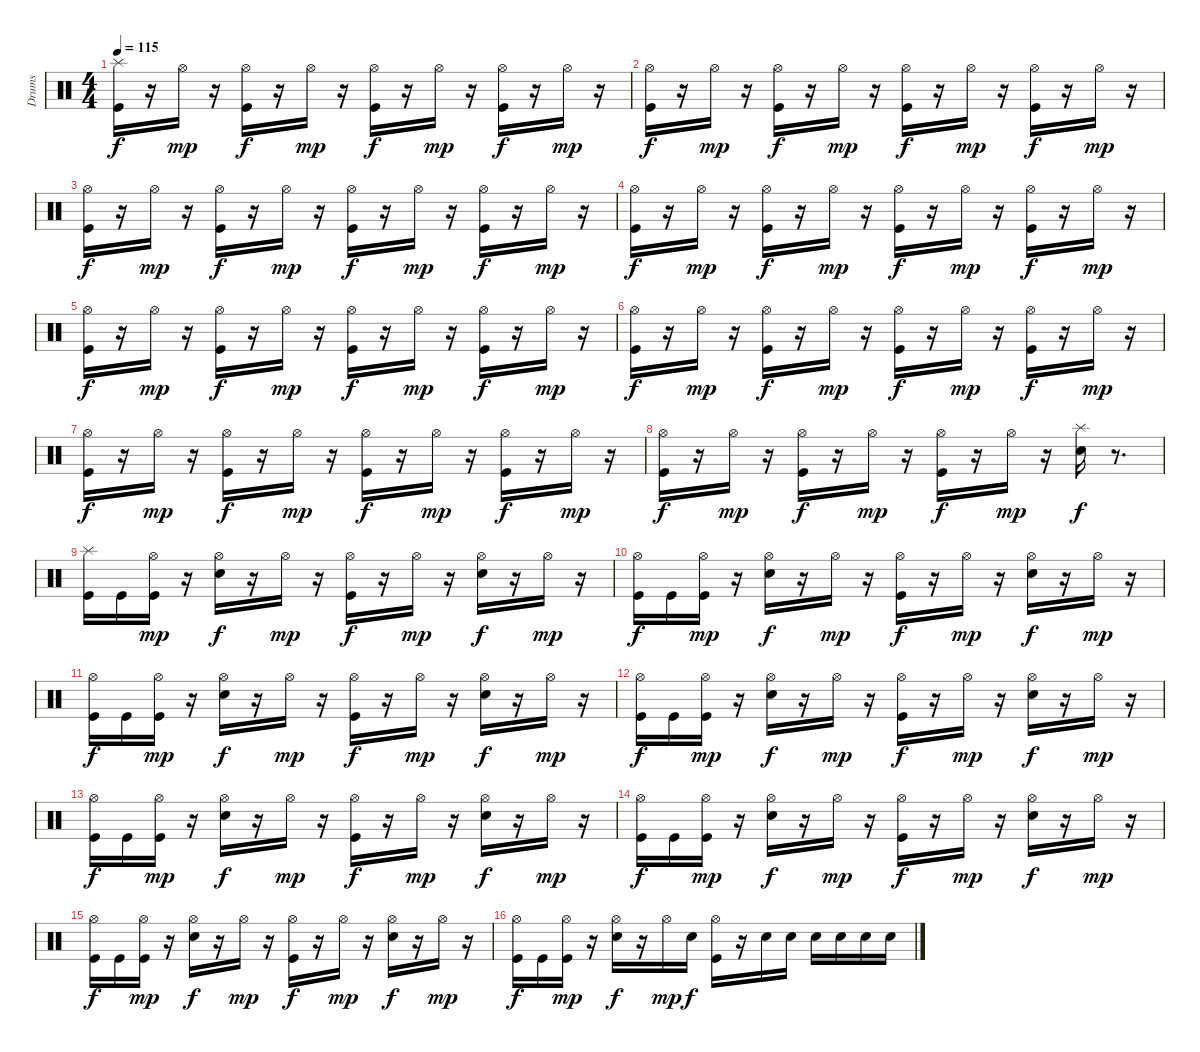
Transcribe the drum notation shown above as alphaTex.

\track ("Drums" "Drums") {instrument percussion}
\staff {score}
\articulation defaults
\ts (4 4)
\tempo 115
\clef neutral
\ks c
("Kick (hit)" "Splash (hit)").16{dy f} r.16 "Hi-Hat (open)".16{dy mp} r.16 ("Hi-Hat (open)" "Kick (hit)").16{dy f} r.16 "Hi-Hat (open)".16{dy mp} r.16 ("Hi-Hat (open)" "Kick (hit)").16{dy f} r.16 "Hi-Hat (open)".16{dy mp} r.16 ("Hi-Hat (open)" "Kick (hit)").16{dy f} r.16 "Hi-Hat (open)".16{dy mp} r.16 |
("Hi-Hat (open)" "Kick (hit)").16{dy f} r.16 "Hi-Hat (open)".16{dy mp} r.16 ("Hi-Hat (open)" "Kick (hit)").16{dy f} r.16 "Hi-Hat (open)".16{dy mp} r.16 ("Hi-Hat (open)" "Kick (hit)").16{dy f} r.16 "Hi-Hat (open)".16{dy mp} r.16 ("Hi-Hat (open)" "Kick (hit)").16{dy f} r.16 "Hi-Hat (open)".16{dy mp} r.16 |
("Hi-Hat (open)" "Kick (hit)").16{dy f} r.16 "Hi-Hat (open)".16{dy mp} r.16 ("Hi-Hat (open)" "Kick (hit)").16{dy f} r.16 "Hi-Hat (open)".16{dy mp} r.16 ("Hi-Hat (open)" "Kick (hit)").16{dy f} r.16 "Hi-Hat (open)".16{dy mp} r.16 ("Hi-Hat (open)" "Kick (hit)").16{dy f} r.16 "Hi-Hat (open)".16{dy mp} r.16 |
("Hi-Hat (open)" "Kick (hit)").16{dy f} r.16 "Hi-Hat (open)".16{dy mp} r.16 ("Hi-Hat (open)" "Kick (hit)").16{dy f} r.16 "Hi-Hat (open)".16{dy mp} r.16 ("Hi-Hat (open)" "Kick (hit)").16{dy f} r.16 "Hi-Hat (open)".16{dy mp} r.16 ("Hi-Hat (open)" "Kick (hit)").16{dy f} r.16 "Hi-Hat (open)".16{dy mp} r.16 |
("Hi-Hat (open)" "Kick (hit)").16{dy f} r.16 "Hi-Hat (open)".16{dy mp} r.16 ("Hi-Hat (open)" "Kick (hit)").16{dy f} r.16 "Hi-Hat (open)".16{dy mp} r.16 ("Hi-Hat (open)" "Kick (hit)").16{dy f} r.16 "Hi-Hat (open)".16{dy mp} r.16 ("Hi-Hat (open)" "Kick (hit)").16{dy f} r.16 "Hi-Hat (open)".16{dy mp} r.16 |
("Hi-Hat (open)" "Kick (hit)").16{dy f} r.16 "Hi-Hat (open)".16{dy mp} r.16 ("Hi-Hat (open)" "Kick (hit)").16{dy f} r.16 "Hi-Hat (open)".16{dy mp} r.16 ("Hi-Hat (open)" "Kick (hit)").16{dy f} r.16 "Hi-Hat (open)".16{dy mp} r.16 ("Hi-Hat (open)" "Kick (hit)").16{dy f} r.16 "Hi-Hat (open)".16{dy mp} r.16 |
("Hi-Hat (open)" "Kick (hit)").16{dy f} r.16 "Hi-Hat (open)".16{dy mp} r.16 ("Hi-Hat (open)" "Kick (hit)").16{dy f} r.16 "Hi-Hat (open)".16{dy mp} r.16 ("Hi-Hat (open)" "Kick (hit)").16{dy f} r.16 "Hi-Hat (open)".16{dy mp} r.16 ("Hi-Hat (open)" "Kick (hit)").16{dy f} r.16 "Hi-Hat (open)".16{dy mp} r.16 |
("Hi-Hat (open)" "Kick (hit)").16{dy f} r.16 "Hi-Hat (open)".16{dy mp} r.16 ("Hi-Hat (open)" "Kick (hit)").16{dy f} r.16 "Hi-Hat (open)".16{dy mp} r.16 ("Hi-Hat (open)" "Kick (hit)").16{dy f} r.16 "Hi-Hat (open)".16{dy mp} r.16 ("Splash (hit)" "Electric Snare (hit)").16{dy f} r.8{d} |
("Splash (hit)" "Kick (hit)").16 "Kick (hit)".16 ("Kick (hit)" "Hi-Hat (open)").16{dy mp} r.16 ("Hi-Hat (open)" "Electric Snare (hit)").16{dy f} r.16 "Hi-Hat (open)".16{dy mp} r.16 ("Hi-Hat (open)" "Kick (hit)").16{dy f} r.16 "Hi-Hat (open)".16{dy mp} r.16 ("Hi-Hat (open)" "Electric Snare (hit)").16{dy f} r.16 "Hi-Hat (open)".16{dy mp} r.16 |
("Hi-Hat (open)" "Kick (hit)").16{dy f} "Kick (hit)".16 ("Kick (hit)" "Hi-Hat (open)").16{dy mp} r.16 ("Hi-Hat (open)" "Electric Snare (hit)").16{dy f} r.16 "Hi-Hat (open)".16{dy mp} r.16 ("Hi-Hat (open)" "Kick (hit)").16{dy f} r.16 "Hi-Hat (open)".16{dy mp} r.16 ("Hi-Hat (open)" "Electric Snare (hit)").16{dy f} r.16 "Hi-Hat (open)".16{dy mp} r.16 |
("Hi-Hat (open)" "Kick (hit)").16{dy f} "Kick (hit)".16 ("Kick (hit)" "Hi-Hat (open)").16{dy mp} r.16 ("Hi-Hat (open)" "Electric Snare (hit)").16{dy f} r.16 "Hi-Hat (open)".16{dy mp} r.16 ("Hi-Hat (open)" "Kick (hit)").16{dy f} r.16 "Hi-Hat (open)".16{dy mp} r.16 ("Hi-Hat (open)" "Electric Snare (hit)").16{dy f} r.16 "Hi-Hat (open)".16{dy mp} r.16 |
("Hi-Hat (open)" "Kick (hit)").16{dy f} "Kick (hit)".16 ("Kick (hit)" "Hi-Hat (open)").16{dy mp} r.16 ("Hi-Hat (open)" "Electric Snare (hit)").16{dy f} r.16 "Hi-Hat (open)".16{dy mp} r.16 ("Hi-Hat (open)" "Kick (hit)").16{dy f} r.16 "Hi-Hat (open)".16{dy mp} r.16 ("Hi-Hat (open)" "Electric Snare (hit)").16{dy f} r.16 "Hi-Hat (open)".16{dy mp} r.16 |
("Hi-Hat (open)" "Kick (hit)").16{dy f} "Kick (hit)".16 ("Kick (hit)" "Hi-Hat (open)").16{dy mp} r.16 ("Hi-Hat (open)" "Electric Snare (hit)").16{dy f} r.16 "Hi-Hat (open)".16{dy mp} r.16 ("Hi-Hat (open)" "Kick (hit)").16{dy f} r.16 "Hi-Hat (open)".16{dy mp} r.16 ("Hi-Hat (open)" "Electric Snare (hit)").16{dy f} r.16 "Hi-Hat (open)".16{dy mp} r.16 |
("Hi-Hat (open)" "Kick (hit)").16{dy f} "Kick (hit)".16 ("Kick (hit)" "Hi-Hat (open)").16{dy mp} r.16 ("Hi-Hat (open)" "Electric Snare (hit)").16{dy f} r.16 "Hi-Hat (open)".16{dy mp} r.16 ("Hi-Hat (open)" "Kick (hit)").16{dy f} r.16 "Hi-Hat (open)".16{dy mp} r.16 ("Hi-Hat (open)" "Electric Snare (hit)").16{dy f} r.16 "Hi-Hat (open)".16{dy mp} r.16 |
("Hi-Hat (open)" "Kick (hit)").16{dy f} "Kick (hit)".16 ("Kick (hit)" "Hi-Hat (open)").16{dy mp} r.16 ("Hi-Hat (open)" "Electric Snare (hit)").16{dy f} r.16 "Hi-Hat (open)".16{dy mp} r.16 ("Hi-Hat (open)" "Kick (hit)").16{dy f} r.16 "Hi-Hat (open)".16{dy mp} r.16 ("Hi-Hat (open)" "Electric Snare (hit)").16{dy f} r.16 "Hi-Hat (open)".16{dy mp} r.16 |
("Hi-Hat (open)" "Kick (hit)").16{dy f} "Kick (hit)".16 ("Kick (hit)" "Hi-Hat (open)").16{dy mp} r.16 ("Hi-Hat (open)" "Electric Snare (hit)").16{dy f} r.16 "Hi-Hat (open)".16{dy mp} "Electric Snare (hit)".16{dy f} ("Hi-Hat (open)" "Kick (hit)").16 r.16 "Electric Snare (hit)".16 "Electric Snare (hit)".16 "Electric Snare (hit)".16 "Electric Snare (hit)".16 "Electric Snare (hit)".16 "Electric Snare (hit)".16
